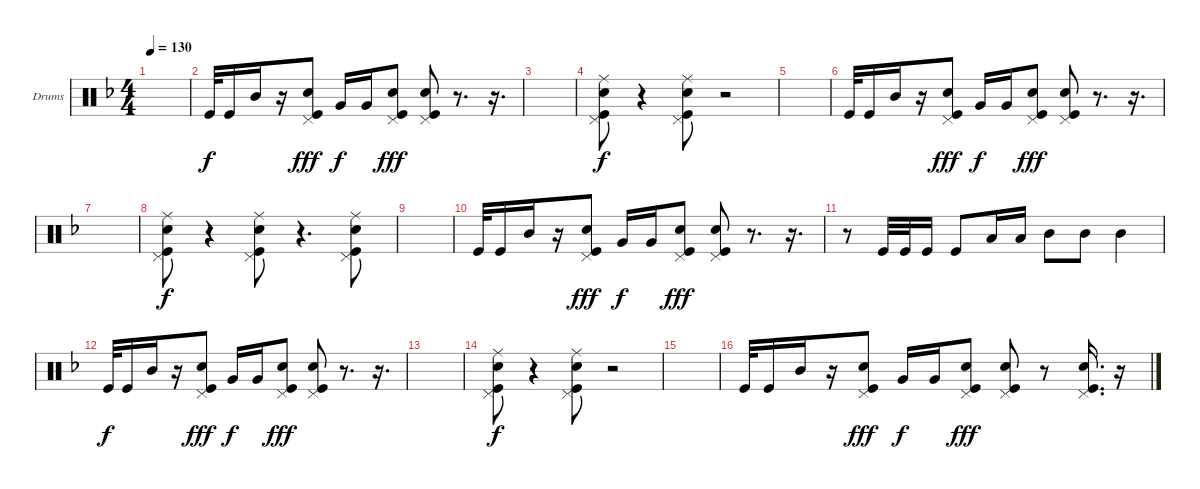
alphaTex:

\defaultSystemsLayout 4
\bracketExtendMode groupsimilarinstruments
\firstSystemTrackNameOrientation horizontal
\otherSystemsTrackNameOrientation horizontal
\track ("Drumkit" "Drums") {instrument percussion}
\staff {score}
\articulation defaults
\ts (4 4)
\tempo 130
\clef neutral
\ks f
|
"Kick (hit)".32{dy f} "Kick (hit)".16 "Mid Tom (hit)".16 r.16 ("Snare (hit) 2" "Pedal Hi-Hat (hit)" "Kick (hit)").8{dy fff} "Very Low Tom (hit)".16{dy f} "Very Low Tom (hit)".16 ("Kick (hit)" "Pedal Hi-Hat (hit)" "Snare (hit) 2").8{dy fff} ("Kick (hit)" "Snare (hit) 2" "Pedal Hi-Hat (hit)").8 r.8{d} r.16{d} |
|
("Pedal Hi-Hat (hit)" "Kick (hit)" "Ride (middle)" "Snare (hit) 2").8{dy f} r.4 ("Ride (middle)" "Kick (hit)" "Pedal Hi-Hat (hit)" "Snare (hit) 2").8 r.2 |
|
"Kick (hit)".32 "Kick (hit)".16 "Mid Tom (hit)".16 r.16 ("Snare (hit) 2" "Pedal Hi-Hat (hit)" "Kick (hit)").8{dy fff} "Very Low Tom (hit)".16{dy f} "Very Low Tom (hit)".16 ("Kick (hit)" "Pedal Hi-Hat (hit)" "Snare (hit) 2").8{dy fff} ("Kick (hit)" "Snare (hit) 2" "Pedal Hi-Hat (hit)").8 r.8{d} r.16{d} |
|
("Pedal Hi-Hat (hit)" "Kick (hit)" "Ride (middle)" "Snare (hit) 2").8{dy f} r.4 ("Ride (middle)" "Kick (hit)" "Pedal Hi-Hat (hit)" "Snare (hit) 2").8 r.4{d} ("Ride (middle)" "Snare (hit) 2" "Kick (hit)" "Pedal Hi-Hat (hit)").8 |
|
"Kick (hit)".32 "Kick (hit)".16 "Mid Tom (hit)".16 r.16 ("Snare (hit) 2" "Pedal Hi-Hat (hit)" "Kick (hit)").8{dy fff} "Very Low Tom (hit)".16{dy f} "Very Low Tom (hit)".16 ("Kick (hit)" "Pedal Hi-Hat (hit)" "Snare (hit) 2").8{dy fff} ("Kick (hit)" "Snare (hit) 2" "Pedal Hi-Hat (hit)").8 r.8{d} r.16{d} |
r.8 "Kick (hit)".32 "Kick (hit)".32 "Kick (hit)".16 "Kick (hit)".8 "Low Tom (hit)".16 "Low Tom (hit)".16 "Mid Tom (hit)".8 "Mid Tom (hit)".8 "Mid Tom (hit)".4 |
"Kick (hit)".32{dy f} "Kick (hit)".16 "Mid Tom (hit)".16 r.16 ("Snare (hit) 2" "Pedal Hi-Hat (hit)" "Kick (hit)").8{dy fff} "Very Low Tom (hit)".16{dy f} "Very Low Tom (hit)".16 ("Kick (hit)" "Pedal Hi-Hat (hit)" "Snare (hit) 2").8{dy fff} ("Kick (hit)" "Snare (hit) 2" "Pedal Hi-Hat (hit)").8 r.8{d} r.16{d} |
|
("Pedal Hi-Hat (hit)" "Kick (hit)" "Ride (middle)" "Snare (hit) 2").8{dy f} r.4 ("Ride (middle)" "Kick (hit)" "Pedal Hi-Hat (hit)" "Snare (hit) 2").8 r.2 |
|
"Kick (hit)".32 "Kick (hit)".16 "Mid Tom (hit)".16 r.16 ("Snare (hit) 2" "Pedal Hi-Hat (hit)" "Kick (hit)").8{dy fff} "Very Low Tom (hit)".16{dy f} "Very Low Tom (hit)".16 ("Kick (hit)" "Pedal Hi-Hat (hit)" "Snare (hit) 2").8{dy fff} ("Kick (hit)" "Snare (hit) 2" "Pedal Hi-Hat (hit)").8 r.8 ("Pedal Hi-Hat (hit)" "Kick (hit)" "Snare (hit) 2").16{d} r.16
